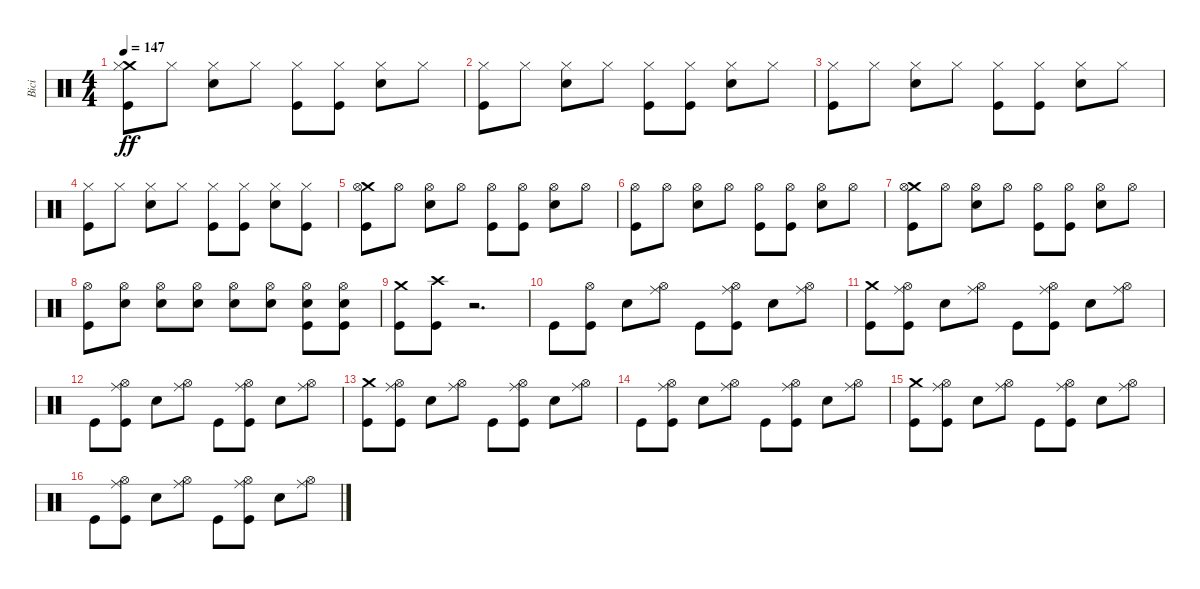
\track ("Bici" "Bici") {instrument percussion}
\staff {score}
\articulation defaults
\ts (4 4)
\tempo 147
\clef neutral
\ks c
("Kick (hit)" "Crash medium (hit)" "Hi-Hat (closed)").8{dy ff} "Hi-Hat (closed)".8 ("Snare (hit) 2" "Hi-Hat (closed)").8 "Hi-Hat (closed)".8 ("Kick (hit)" "Hi-Hat (closed)").8 ("Kick (hit)" "Hi-Hat (closed)").8 ("Snare (hit) 2" "Hi-Hat (closed)").8 "Hi-Hat (closed)".8 |
("Kick (hit)" "Hi-Hat (closed)").8 "Hi-Hat (closed)".8 ("Snare (hit) 2" "Hi-Hat (closed)").8 "Hi-Hat (closed)".8 ("Kick (hit)" "Hi-Hat (closed)").8 ("Kick (hit)" "Hi-Hat (closed)").8 ("Snare (hit) 2" "Hi-Hat (closed)").8 "Hi-Hat (closed)".8 |
("Kick (hit)" "Hi-Hat (closed)").8 "Hi-Hat (closed)".8 ("Snare (hit) 2" "Hi-Hat (closed)").8 "Hi-Hat (closed)".8 ("Kick (hit)" "Hi-Hat (closed)").8 ("Kick (hit)" "Hi-Hat (closed)").8 ("Snare (hit) 2" "Hi-Hat (closed)").8 "Hi-Hat (closed)".8 |
("Kick (hit)" "Hi-Hat (closed)").8 "Hi-Hat (closed)".8 ("Snare (hit) 2" "Hi-Hat (closed)").8 "Hi-Hat (closed)".8 ("Kick (hit)" "Hi-Hat (closed)").8 ("Kick (hit)" "Hi-Hat (closed)").8 ("Snare (hit) 2" "Hi-Hat (closed)").8 ("Kick (hit)" "Hi-Hat (closed)").8 |
("Kick (hit)" "Crash medium (hit)" "Hi-Hat (open)").8 "Hi-Hat (open)".8 ("Snare (hit) 2" "Hi-Hat (open)").8 "Hi-Hat (open)".8 ("Kick (hit)" "Hi-Hat (open)").8 ("Kick (hit)" "Hi-Hat (open)").8 ("Snare (hit) 2" "Hi-Hat (open)").8 "Hi-Hat (open)".8 |
("Kick (hit)" "Hi-Hat (open)").8 "Hi-Hat (open)".8 ("Snare (hit) 2" "Hi-Hat (open)").8 "Hi-Hat (open)".8 ("Kick (hit)" "Hi-Hat (open)").8 ("Kick (hit)" "Hi-Hat (open)").8 ("Snare (hit) 2" "Hi-Hat (open)").8 "Hi-Hat (open)".8 |
("Kick (hit)" "Crash medium (hit)" "Hi-Hat (open)").8 "Hi-Hat (open)".8 ("Snare (hit) 2" "Hi-Hat (open)").8 "Hi-Hat (open)".8 ("Kick (hit)" "Hi-Hat (open)").8 ("Kick (hit)" "Hi-Hat (open)").8 ("Snare (hit) 2" "Hi-Hat (open)").8 "Hi-Hat (open)".8 |
("Kick (hit)" "Hi-Hat (open)").8 ("Snare (hit) 2" "Hi-Hat (open)").8 ("Snare (hit) 2" "Hi-Hat (open)").8 ("Snare (hit) 2" "Hi-Hat (open)").8 ("Snare (hit) 2" "Hi-Hat (open)").8 ("Snare (hit) 2" "Hi-Hat (open)").8 ("Kick (hit)" "Snare (hit) 2" "Hi-Hat (open)").8 ("Kick (hit)" "Snare (hit) 2" "Hi-Hat (open)").8 |
("Kick (hit)" "Crash medium (hit)").8 ("Kick (hit)" "Crash high (hit)").8 r.2{d} |
"Kick (hit)".8 ("Kick (hit)" "Hi-Hat (open)").8 "Snare (hit) 2".8 ("Hi-Hat (open)" "Ride (middle)").8 "Kick (hit)".8 ("Kick (hit)" "Hi-Hat (open)" "Ride (middle)").8 "Snare (hit) 2".8 ("Hi-Hat (open)" "Ride (middle)").8 |
("Kick (hit)" "Crash medium (hit)").8 ("Kick (hit)" "Hi-Hat (open)" "Ride (middle)").8 "Snare (hit) 2".8 ("Hi-Hat (open)" "Ride (middle)").8 "Kick (hit)".8 ("Kick (hit)" "Hi-Hat (open)" "Ride (middle)").8 "Snare (hit) 2".8 ("Hi-Hat (open)" "Ride (middle)").8 |
"Kick (hit)".8 ("Kick (hit)" "Hi-Hat (open)" "Ride (middle)").8 "Snare (hit) 2".8 ("Hi-Hat (open)" "Ride (middle)").8 "Kick (hit)".8 ("Kick (hit)" "Hi-Hat (open)" "Ride (middle)").8 "Snare (hit) 2".8 ("Hi-Hat (open)" "Ride (middle)").8 |
("Kick (hit)" "Crash medium (hit)").8 ("Kick (hit)" "Hi-Hat (open)" "Ride (middle)").8 "Snare (hit) 2".8 ("Hi-Hat (open)" "Ride (middle)").8 "Kick (hit)".8 ("Kick (hit)" "Hi-Hat (open)" "Ride (middle)").8 "Snare (hit) 2".8 ("Hi-Hat (open)" "Ride (middle)").8 |
"Kick (hit)".8 ("Kick (hit)" "Hi-Hat (open)" "Ride (middle)").8 "Snare (hit) 2".8 ("Hi-Hat (open)" "Ride (middle)").8 "Kick (hit)".8 ("Kick (hit)" "Hi-Hat (open)" "Ride (middle)").8 "Snare (hit) 2".8 ("Hi-Hat (open)" "Ride (middle)").8 |
("Kick (hit)" "Crash medium (hit)").8 ("Kick (hit)" "Hi-Hat (open)" "Ride (middle)").8 "Snare (hit) 2".8 ("Hi-Hat (open)" "Ride (middle)").8 "Kick (hit)".8 ("Kick (hit)" "Hi-Hat (open)" "Ride (middle)").8 "Snare (hit) 2".8 ("Hi-Hat (open)" "Ride (middle)").8 |
"Kick (hit)".8 ("Kick (hit)" "Hi-Hat (open)" "Ride (middle)").8 "Snare (hit) 2".8 ("Hi-Hat (open)" "Ride (middle)").8 "Kick (hit)".8 ("Kick (hit)" "Hi-Hat (open)" "Ride (middle)").8 "Snare (hit) 2".8 ("Hi-Hat (open)" "Ride (middle)").8
